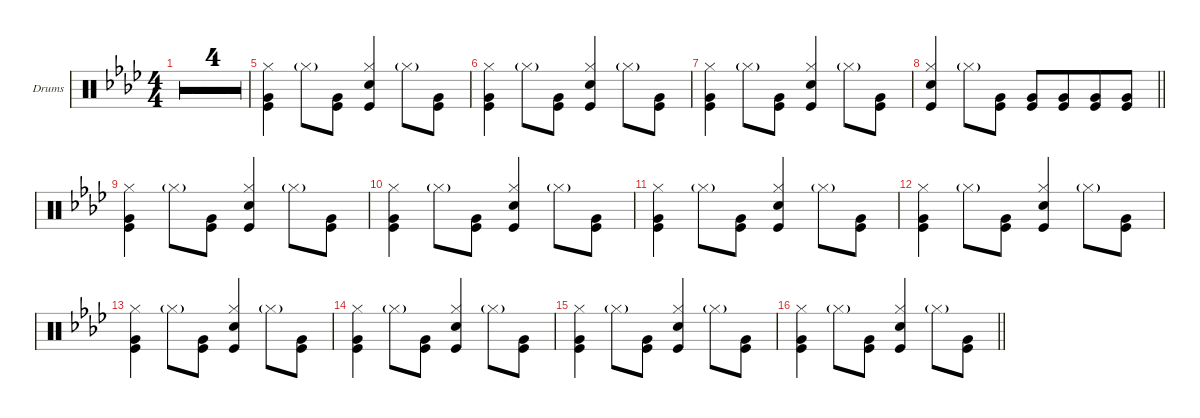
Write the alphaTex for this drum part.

\defaultSystemsLayout 4
\hideDynamics
\bracketExtendMode groupsimilarinstruments
\firstSystemTrackNameOrientation horizontal
\otherSystemsTrackNameOrientation horizontal
\track ("Drumkit" "Drums") {multiBarRest instrument percussion}
\staff {score}
\articulation defaults
\ts (4 4)
\beaming (8 4 4)
\tempo 142
\clef neutral
\ks ab
r.1{dy fff} |
r.1 |
r.1 |
\barLineRight lightlight
r.1 |
("Very Low Tom (hit)" "Kick (hit)" "Hi-Hat (closed)").4 "Hi-Hat (closed)"{g}.8 ("Very Low Tom (hit)" "Kick (hit)").8 ("Snare (hit) 2" "Kick (hit)" "Hi-Hat (closed)").4 "Hi-Hat (closed)"{g}.8 ("Very Low Tom (hit)" "Kick (hit)").8 |
("Very Low Tom (hit)" "Kick (hit)" "Hi-Hat (closed)").4 "Hi-Hat (closed)"{g}.8 ("Very Low Tom (hit)" "Kick (hit)").8 ("Snare (hit) 2" "Kick (hit)" "Hi-Hat (closed)").4 "Hi-Hat (closed)"{g}.8 ("Very Low Tom (hit)" "Kick (hit)").8 |
("Very Low Tom (hit)" "Kick (hit)" "Hi-Hat (closed)").4 "Hi-Hat (closed)"{g}.8 ("Very Low Tom (hit)" "Kick (hit)").8 ("Snare (hit) 2" "Kick (hit)" "Hi-Hat (closed)").4 "Hi-Hat (closed)"{g}.8 ("Very Low Tom (hit)" "Kick (hit)").8 |
\barLineRight lightlight
("Snare (hit) 2" "Kick (hit)" "Hi-Hat (closed)").4 "Hi-Hat (closed)"{g}.8 ("Very Low Tom (hit)" "Kick (hit)").8 ("Very Low Tom (hit)" "Kick (hit)").8 ("Very Low Tom (hit)" "Kick (hit)").8 ("Very Low Tom (hit)" "Kick (hit)").8 ("Very Low Tom (hit)" "Kick (hit)").8 |
("Very Low Tom (hit)" "Kick (hit)" "Hi-Hat (closed)").4 "Hi-Hat (closed)"{g}.8 ("Very Low Tom (hit)" "Kick (hit)").8 ("Snare (hit) 2" "Kick (hit)" "Hi-Hat (closed)").4 "Hi-Hat (closed)"{g}.8 ("Very Low Tom (hit)" "Kick (hit)").8 |
("Very Low Tom (hit)" "Kick (hit)" "Hi-Hat (closed)").4 "Hi-Hat (closed)"{g}.8 ("Very Low Tom (hit)" "Kick (hit)").8 ("Snare (hit) 2" "Kick (hit)" "Hi-Hat (closed)").4 "Hi-Hat (closed)"{g}.8 ("Very Low Tom (hit)" "Kick (hit)").8 |
("Very Low Tom (hit)" "Kick (hit)" "Hi-Hat (closed)").4 "Hi-Hat (closed)"{g}.8 ("Very Low Tom (hit)" "Kick (hit)").8 ("Snare (hit) 2" "Kick (hit)" "Hi-Hat (closed)").4 "Hi-Hat (closed)"{g}.8 ("Very Low Tom (hit)" "Kick (hit)").8 |
("Very Low Tom (hit)" "Kick (hit)" "Hi-Hat (closed)").4 "Hi-Hat (closed)"{g}.8 ("Very Low Tom (hit)" "Kick (hit)").8 ("Snare (hit) 2" "Kick (hit)" "Hi-Hat (closed)").4 "Hi-Hat (closed)"{g}.8 ("Very Low Tom (hit)" "Kick (hit)").8 |
("Very Low Tom (hit)" "Kick (hit)" "Hi-Hat (closed)").4 "Hi-Hat (closed)"{g}.8 ("Very Low Tom (hit)" "Kick (hit)").8 ("Snare (hit) 2" "Kick (hit)" "Hi-Hat (closed)").4 "Hi-Hat (closed)"{g}.8 ("Very Low Tom (hit)" "Kick (hit)").8 |
("Very Low Tom (hit)" "Kick (hit)" "Hi-Hat (closed)").4 "Hi-Hat (closed)"{g}.8 ("Very Low Tom (hit)" "Kick (hit)").8 ("Snare (hit) 2" "Kick (hit)" "Hi-Hat (closed)").4 "Hi-Hat (closed)"{g}.8 ("Very Low Tom (hit)" "Kick (hit)").8 |
("Very Low Tom (hit)" "Kick (hit)" "Hi-Hat (closed)").4 "Hi-Hat (closed)"{g}.8 ("Very Low Tom (hit)" "Kick (hit)").8 ("Snare (hit) 2" "Kick (hit)" "Hi-Hat (closed)").4 "Hi-Hat (closed)"{g}.8 ("Very Low Tom (hit)" "Kick (hit)").8 |
\barLineRight lightlight
("Very Low Tom (hit)" "Kick (hit)" "Hi-Hat (closed)").4 "Hi-Hat (closed)"{g}.8 ("Very Low Tom (hit)" "Kick (hit)").8 ("Snare (hit) 2" "Kick (hit)" "Hi-Hat (closed)").4 "Hi-Hat (closed)"{g}.8 ("Very Low Tom (hit)" "Kick (hit)").8
